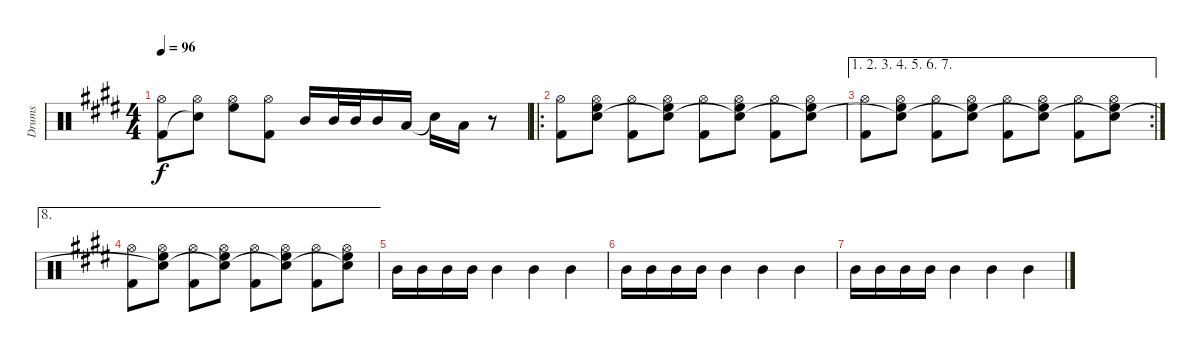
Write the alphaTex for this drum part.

\track ("Drums" "Drums") {instrument percussion}
\staff {score}
\articulation defaults
\ts (4 4)
\tempo 96
\clef neutral
\ks e
("Hi-Hat (open)" "Kick (hit) 2").8{dy f} ("Hi-Hat (open)" "Snare (hit)"{t}).8 ("Hi-Hat (open)" "High Floor Tom (hit)").8 ("Hi-Hat (open)" "Kick (hit) 2").8 "Mid Tom (hit)".16 "Mid Tom (hit)".32 "Mid Tom (hit)".32 "Mid Tom (hit)".16 "Low Tom (hit)".16 "Snare (hit)"{t}.16 "Low Tom (hit)".16 r.8 |
\ro
("Hi-Hat (open)" "Kick (hit) 2").8 ("Hi-Hat (open)" "High Floor Tom (hit)" "Snare (hit)").8 ("Hi-Hat (open)" "Kick (hit) 2").8 ("Hi-Hat (open)" "High Floor Tom (hit)" "Snare (hit)"{t}).8 ("Hi-Hat (open)" "Kick (hit) 2").8 ("Hi-Hat (open)" "High Floor Tom (hit)" "Snare (hit)"{t}).8 ("Hi-Hat (open)" "Kick (hit) 2").8 ("Hi-Hat (open)" "High Floor Tom (hit)" "Snare (hit)"{t}).8 |
\ae (1 2 3 4 5 6 7)
\rc 2
("Hi-Hat (open)" "Kick (hit) 2").8 ("Hi-Hat (open)" "High Floor Tom (hit)" "Snare (hit)"{t}).8 ("Hi-Hat (open)" "Kick (hit) 2").8 ("Hi-Hat (open)" "High Floor Tom (hit)" "Snare (hit)"{t}).8 ("Hi-Hat (open)" "Kick (hit) 2").8 ("Hi-Hat (open)" "High Floor Tom (hit)" "Snare (hit)"{t}).8 ("Hi-Hat (open)" "Kick (hit) 2").8 ("Hi-Hat (open)" "High Floor Tom (hit)" "Snare (hit)"{t}).8 |
\ae 8
("Hi-Hat (open)" "Kick (hit) 2").8 ("Hi-Hat (open)" "High Floor Tom (hit)" "Snare (hit)"{t}).8 ("Hi-Hat (open)" "Kick (hit) 2").8 ("Hi-Hat (open)" "High Floor Tom (hit)" "Snare (hit)"{t}).8 ("Hi-Hat (open)" "Kick (hit) 2").8 ("Hi-Hat (open)" "High Floor Tom (hit)" "Snare (hit)"{t}).8 ("Hi-Hat (open)" "Kick (hit) 2").8 ("Hi-Hat (open)" "High Floor Tom (hit)" "Snare (hit)"{t}).8 |
"Mid Tom (hit)".16 "Mid Tom (hit)".16 "Mid Tom (hit)".16 "Mid Tom (hit)".16 "Mid Tom (hit)".4 "Mid Tom (hit)".4 "Mid Tom (hit)".4 |
"Mid Tom (hit)".16 "Mid Tom (hit)".16 "Mid Tom (hit)".16 "Mid Tom (hit)".16 "Mid Tom (hit)".4 "Mid Tom (hit)".4 "Mid Tom (hit)".4 |
"Mid Tom (hit)".16 "Mid Tom (hit)".16 "Mid Tom (hit)".16 "Mid Tom (hit)".16 "Mid Tom (hit)".4 "Mid Tom (hit)".4 "Mid Tom (hit)".4
